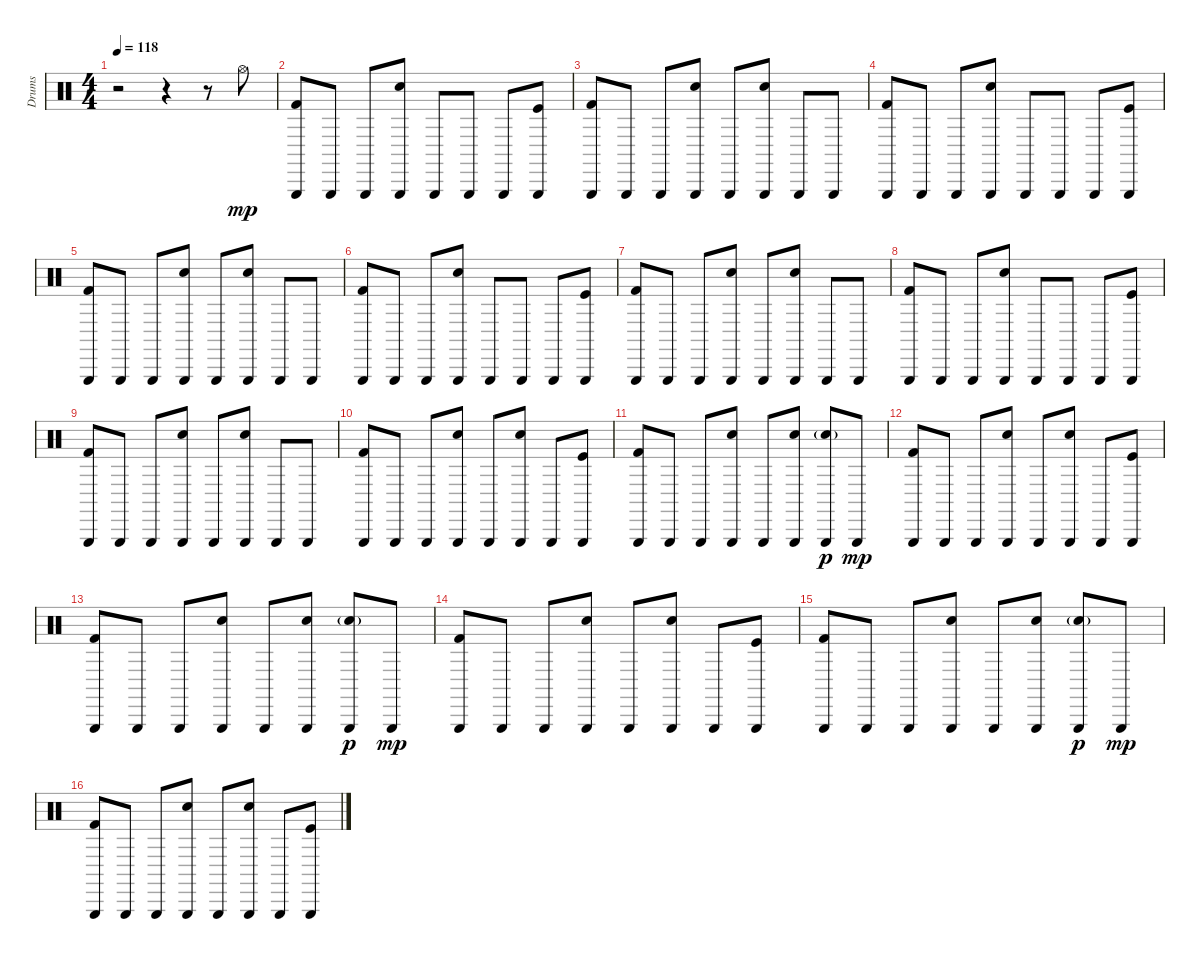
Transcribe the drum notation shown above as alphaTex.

\track ("Drums" "Drums") {instrument percussion}
\staff {score}
\articulation defaults
\ts (4 4)
\tempo 118
\clef neutral
\ks c
r.2{dy mp} r.4 r.8 "Hi-Hat (open)".8 |
("Triangle (hit)" "Kick (hit) 2").8 "Triangle (hit)".8 "Triangle (hit)".8 ("Triangle (hit)" "Electric Snare (hit)").8 "Triangle (hit)".8 "Triangle (hit)".8 "Triangle (hit)".8 ("Triangle (hit)" "Kick (hit)").8 |
("Triangle (hit)" "Kick (hit) 2").8 "Triangle (hit)".8 "Triangle (hit)".8 ("Triangle (hit)" "Electric Snare (hit)").8 "Triangle (hit)".8 ("Triangle (hit)" "Electric Snare (hit)").8 "Triangle (hit)".8 "Triangle (hit)".8 |
("Triangle (hit)" "Kick (hit) 2").8 "Triangle (hit)".8 "Triangle (hit)".8 ("Triangle (hit)" "Electric Snare (hit)").8 "Triangle (hit)".8 "Triangle (hit)".8 "Triangle (hit)".8 ("Triangle (hit)" "Kick (hit)").8 |
("Triangle (hit)" "Kick (hit) 2").8 "Triangle (hit)".8 "Triangle (hit)".8 ("Triangle (hit)" "Electric Snare (hit)").8 "Triangle (hit)".8 ("Triangle (hit)" "Electric Snare (hit)").8 "Triangle (hit)".8 "Triangle (hit)".8 |
("Triangle (hit)" "Kick (hit) 2").8 "Triangle (hit)".8 "Triangle (hit)".8 ("Triangle (hit)" "Electric Snare (hit)").8 "Triangle (hit)".8 "Triangle (hit)".8 "Triangle (hit)".8 ("Triangle (hit)" "Kick (hit)").8 |
("Triangle (hit)" "Kick (hit) 2").8 "Triangle (hit)".8 "Triangle (hit)".8 ("Triangle (hit)" "Electric Snare (hit)").8 "Triangle (hit)".8 ("Triangle (hit)" "Electric Snare (hit)").8 "Triangle (hit)".8 "Triangle (hit)".8 |
("Triangle (hit)" "Kick (hit) 2").8 "Triangle (hit)".8 "Triangle (hit)".8 ("Triangle (hit)" "Electric Snare (hit)").8 "Triangle (hit)".8 "Triangle (hit)".8 "Triangle (hit)".8 ("Triangle (hit)" "Kick (hit)").8 |
("Triangle (hit)" "Kick (hit) 2").8 "Triangle (hit)".8 "Triangle (hit)".8 ("Triangle (hit)" "Electric Snare (hit)").8 "Triangle (hit)".8 ("Triangle (hit)" "Electric Snare (hit)").8 "Triangle (hit)".8 "Triangle (hit)".8 |
("Triangle (hit)" "Kick (hit) 2").8 "Triangle (hit)".8 "Triangle (hit)".8 ("Triangle (hit)" "Electric Snare (hit)").8 "Triangle (hit)".8 ("Triangle (hit)" "Electric Snare (hit)").8 "Triangle (hit)".8 ("Triangle (hit)" "Kick (hit)").8 |
("Triangle (hit)" "Kick (hit) 2").8 "Triangle (hit)".8 "Triangle (hit)".8 ("Triangle (hit)" "Electric Snare (hit)").8 "Triangle (hit)".8 ("Triangle (hit)" "Electric Snare (hit)").8 ("Triangle (hit)" "Electric Snare (hit)"{g}).8{dy p} "Triangle (hit)".8{dy mp} |
("Triangle (hit)" "Kick (hit) 2").8 "Triangle (hit)".8 "Triangle (hit)".8 ("Triangle (hit)" "Electric Snare (hit)").8 "Triangle (hit)".8 ("Triangle (hit)" "Electric Snare (hit)").8 "Triangle (hit)".8 ("Triangle (hit)" "Kick (hit)").8 |
("Triangle (hit)" "Kick (hit) 2").8 "Triangle (hit)".8 "Triangle (hit)".8 ("Triangle (hit)" "Electric Snare (hit)").8 "Triangle (hit)".8 ("Triangle (hit)" "Electric Snare (hit)").8 ("Triangle (hit)" "Electric Snare (hit)"{g}).8{dy p} "Triangle (hit)".8{dy mp} |
("Triangle (hit)" "Kick (hit) 2").8 "Triangle (hit)".8 "Triangle (hit)".8 ("Triangle (hit)" "Electric Snare (hit)").8 "Triangle (hit)".8 ("Triangle (hit)" "Electric Snare (hit)").8 "Triangle (hit)".8 ("Triangle (hit)" "Kick (hit)").8 |
("Triangle (hit)" "Kick (hit) 2").8 "Triangle (hit)".8 "Triangle (hit)".8 ("Triangle (hit)" "Electric Snare (hit)").8 "Triangle (hit)".8 ("Triangle (hit)" "Electric Snare (hit)").8 ("Triangle (hit)" "Electric Snare (hit)"{g}).8{dy p} "Triangle (hit)".8{dy mp} |
("Triangle (hit)" "Kick (hit) 2").8 "Triangle (hit)".8 "Triangle (hit)".8 ("Triangle (hit)" "Electric Snare (hit)").8 "Triangle (hit)".8 ("Triangle (hit)" "Electric Snare (hit)").8 "Triangle (hit)".8 ("Triangle (hit)" "Kick (hit)").8
